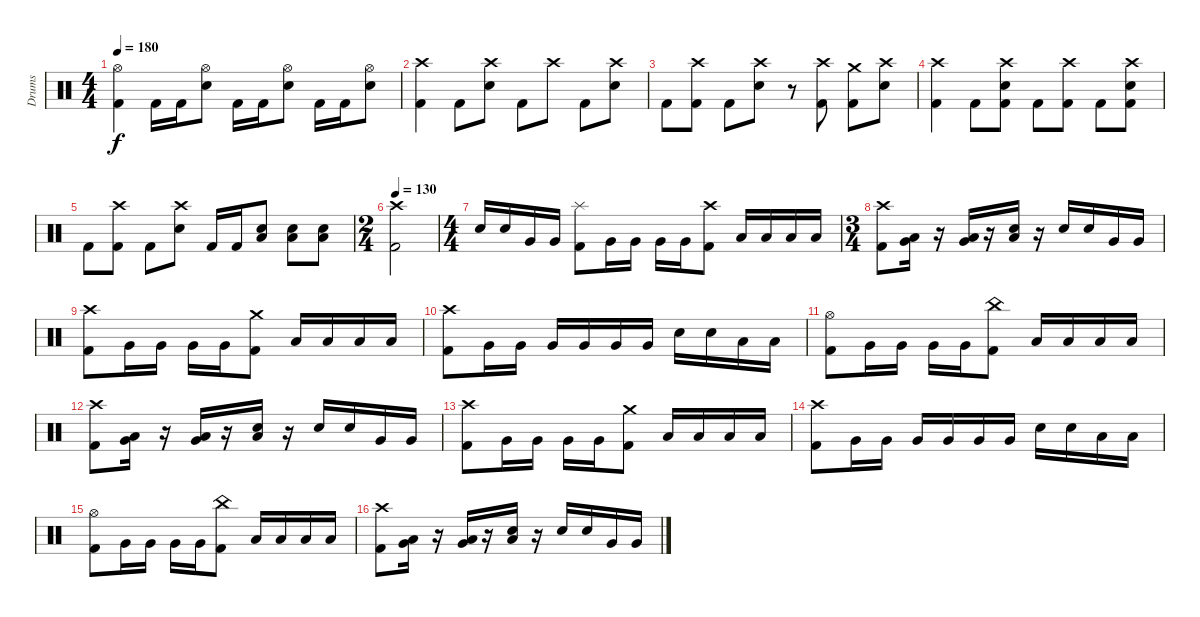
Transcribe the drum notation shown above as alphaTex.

\track ("Drums" "Drums") {instrument percussion}
\staff {score}
\articulation defaults
\ts (4 4)
\tempo 180
\clef neutral
\ks c
("Hi-Hat (open)" "Kick (hit) 2").4{dy f} "Kick (hit) 2".16 "Kick (hit) 2".16 ("Hi-Hat (open)" "Electric Snare (hit)").8 "Kick (hit) 2".16 "Kick (hit) 2".16 ("Hi-Hat (open)" "Electric Snare (hit)").8 "Kick (hit) 2".16 "Kick (hit) 2".16 ("Hi-Hat (open)" "Electric Snare (hit)").8 |
("Crash high (hit)" "Kick (hit) 2").4 "Kick (hit) 2".8 ("Crash high (hit)" "Electric Snare (hit)").8 "Kick (hit) 2".8 "Crash high (hit)".8 "Kick (hit) 2".8 ("Crash high (hit)" "Electric Snare (hit)").8 |
"Kick (hit) 2".8 ("Crash high (hit)" "Kick (hit) 2").8 "Kick (hit) 2".8 ("Crash high (hit)" "Electric Snare (hit)").8 r.8 ("Crash high (hit)" "Kick (hit) 2").8 ("Crash medium (hit)" "Kick (hit) 2").8 ("Crash high (hit)" "Electric Snare (hit)").8 |
("Crash high (hit)" "Kick (hit) 2").4 "Kick (hit) 2".8 ("Crash high (hit)" "Electric Snare (hit)" "Kick (hit) 2").8 "Kick (hit) 2".8 ("Crash high (hit)" "Kick (hit) 2").8 "Kick (hit) 2".8 ("Crash high (hit)" "Electric Snare (hit)" "Kick (hit) 2").8 |
"Kick (hit) 2".8 ("Crash high (hit)" "Kick (hit) 2").8 "Kick (hit) 2".8 ("Crash high (hit)" "Electric Snare (hit)").8 "Kick (hit) 2".16 "Kick (hit) 2".16 ("Low Floor Tom (hit)" "Electric Snare (hit)").8 ("Low Floor Tom (hit)" "Electric Snare (hit)").8 ("Low Floor Tom (hit)" "Electric Snare (hit)").8 |
\ts (2 4)
\tempo 130
("Crash high (hit)" "Kick (hit) 2").2 |
\ts (4 4)
"Electric Snare (hit)".16 "Electric Snare (hit)".16 "Very Low Tom (hit)".16 "Very Low Tom (hit)".16 ("Splash (hit)" "Kick (hit) 2").8 "Very Low Tom (hit)".16 "Very Low Tom (hit)".16 "Very Low Tom (hit)".16 "Very Low Tom (hit)".16 ("Crash high (hit)" "Kick (hit) 2").8 "Low Floor Tom (hit)".16 "Low Floor Tom (hit)".16 "Low Floor Tom (hit)".16 "Low Floor Tom (hit)".16 |
\ts (3 4)
("Crash high (hit)" "Kick (hit) 2").8 ("Very Low Tom (hit)" "Low Floor Tom (hit)").16 r.16 ("Very Low Tom (hit)" "Low Floor Tom (hit)").16 r.16 ("Electric Snare (hit)" "Low Floor Tom (hit)").16 r.16 "Electric Snare (hit)".16 "Electric Snare (hit)".16 "Very Low Tom (hit)".16 "Very Low Tom (hit)".16 |
("Crash high (hit)" "Kick (hit) 2").8 "Very Low Tom (hit)".16 "Very Low Tom (hit)".16 "Very Low Tom (hit)".16 "Very Low Tom (hit)".16 ("Crash medium (hit)" "Kick (hit) 2").8 "Low Floor Tom (hit)".16 "Low Floor Tom (hit)".16 "Low Floor Tom (hit)".16 "Low Floor Tom (hit)".16 |
("Crash high (hit)" "Kick (hit) 2").8 "Very Low Tom (hit)".16 "Very Low Tom (hit)".16 "Very Low Tom (hit)".16 "Very Low Tom (hit)".16 "Very Low Tom (hit)".16 "Very Low Tom (hit)".16 "Electric Snare (hit)".16 "Electric Snare (hit)".16 "Low Floor Tom (hit)".16 "Low Floor Tom (hit)".16 |
("Hi-Hat (open)" "Kick (hit) 2").8 "Very Low Tom (hit)".16 "Very Low Tom (hit)".16 "Very Low Tom (hit)".16 "Very Low Tom (hit)".16 ("China (hit)" "Kick (hit) 2").8 "Low Floor Tom (hit)".16 "Low Floor Tom (hit)".16 "Low Floor Tom (hit)".16 "Low Floor Tom (hit)".16 |
("Crash high (hit)" "Kick (hit) 2").8 ("Very Low Tom (hit)" "Low Floor Tom (hit)").16 r.16 ("Very Low Tom (hit)" "Low Floor Tom (hit)").16 r.16 ("Electric Snare (hit)" "Low Floor Tom (hit)").16 r.16 "Electric Snare (hit)".16 "Electric Snare (hit)".16 "Very Low Tom (hit)".16 "Very Low Tom (hit)".16 |
("Crash high (hit)" "Kick (hit) 2").8 "Very Low Tom (hit)".16 "Very Low Tom (hit)".16 "Very Low Tom (hit)".16 "Very Low Tom (hit)".16 ("Crash medium (hit)" "Kick (hit) 2").8 "Low Floor Tom (hit)".16 "Low Floor Tom (hit)".16 "Low Floor Tom (hit)".16 "Low Floor Tom (hit)".16 |
("Crash high (hit)" "Kick (hit) 2").8 "Very Low Tom (hit)".16 "Very Low Tom (hit)".16 "Very Low Tom (hit)".16 "Very Low Tom (hit)".16 "Very Low Tom (hit)".16 "Very Low Tom (hit)".16 "Electric Snare (hit)".16 "Electric Snare (hit)".16 "Low Floor Tom (hit)".16 "Low Floor Tom (hit)".16 |
("Hi-Hat (open)" "Kick (hit) 2").8 "Very Low Tom (hit)".16 "Very Low Tom (hit)".16 "Very Low Tom (hit)".16 "Very Low Tom (hit)".16 ("China (hit)" "Kick (hit) 2").8 "Low Floor Tom (hit)".16 "Low Floor Tom (hit)".16 "Low Floor Tom (hit)".16 "Low Floor Tom (hit)".16 |
("Crash high (hit)" "Kick (hit) 2").8 ("Very Low Tom (hit)" "Low Floor Tom (hit)").16 r.16 ("Very Low Tom (hit)" "Low Floor Tom (hit)").16 r.16 ("Electric Snare (hit)" "Low Floor Tom (hit)").16 r.16 "Electric Snare (hit)".16 "Electric Snare (hit)".16 "Very Low Tom (hit)".16 "Very Low Tom (hit)".16
